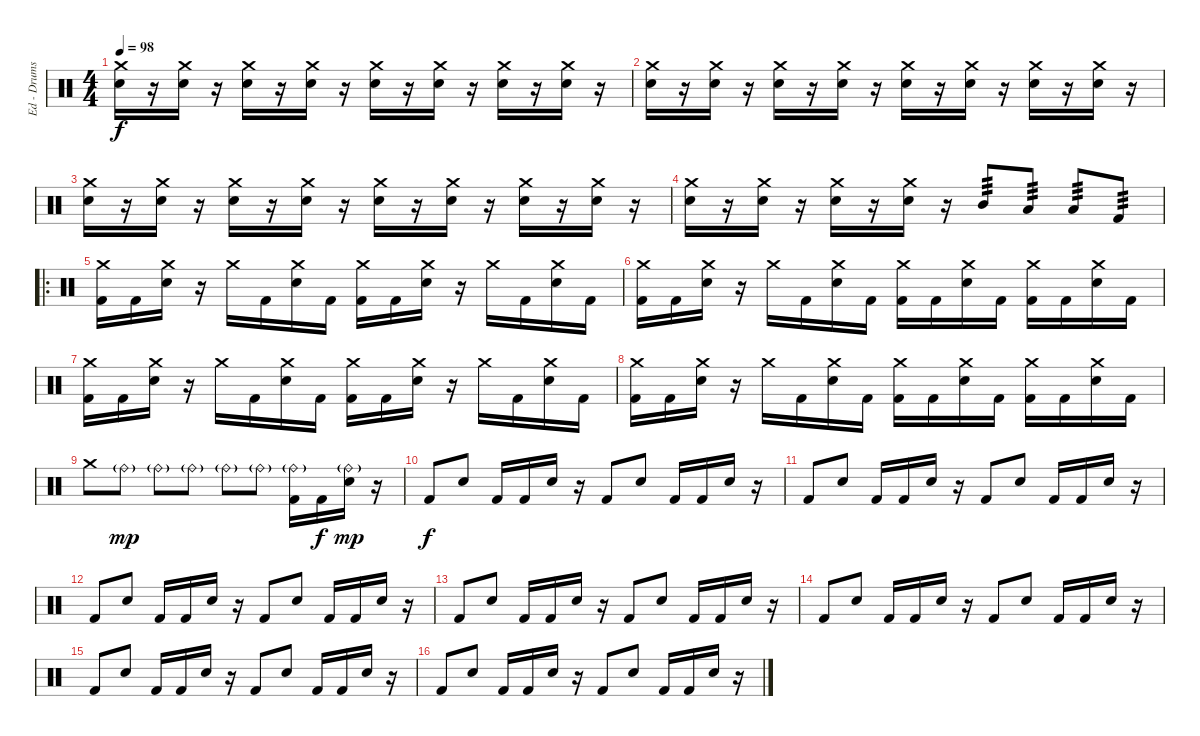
\track ("Ed - Drums" "Ed - Drums") {instrument percussion}
\staff {score}
\articulation defaults
\ts (4 4)
\tempo 98
\clef neutral
\ks c
("Crash medium (hit)" "Electric Snare (hit)").16{dy f} r.16 ("Crash medium (hit)" "Electric Snare (hit)").16 r.16 ("Crash medium (hit)" "Electric Snare (hit)").16 r.16 ("Crash medium (hit)" "Electric Snare (hit)").16 r.16 ("Crash medium (hit)" "Electric Snare (hit)").16 r.16 ("Crash medium (hit)" "Electric Snare (hit)").16 r.16 ("Crash medium (hit)" "Electric Snare (hit)").16 r.16 ("Crash medium (hit)" "Electric Snare (hit)").16 r.16 |
("Crash medium (hit)" "Electric Snare (hit)").16 r.16 ("Crash medium (hit)" "Electric Snare (hit)").16 r.16 ("Crash medium (hit)" "Electric Snare (hit)").16 r.16 ("Crash medium (hit)" "Electric Snare (hit)").16 r.16 ("Crash medium (hit)" "Electric Snare (hit)").16 r.16 ("Crash medium (hit)" "Electric Snare (hit)").16 r.16 ("Crash medium (hit)" "Electric Snare (hit)").16 r.16 ("Crash medium (hit)" "Electric Snare (hit)").16 r.16 |
("Crash medium (hit)" "Electric Snare (hit)").16 r.16 ("Crash medium (hit)" "Electric Snare (hit)").16 r.16 ("Crash medium (hit)" "Electric Snare (hit)").16 r.16 ("Crash medium (hit)" "Electric Snare (hit)").16 r.16 ("Crash medium (hit)" "Electric Snare (hit)").16 r.16 ("Crash medium (hit)" "Electric Snare (hit)").16 r.16 ("Crash medium (hit)" "Electric Snare (hit)").16 r.16 ("Crash medium (hit)" "Electric Snare (hit)").16 r.16 |
("Crash medium (hit)" "Electric Snare (hit)").16 r.16 ("Crash medium (hit)" "Electric Snare (hit)").16 r.16 ("Crash medium (hit)" "Electric Snare (hit)").16 r.16 ("Crash medium (hit)" "Electric Snare (hit)").16 r.16 "Mid Tom (hit)".8{tp 3} "Low Tom (hit)".8{tp 3} "Low Floor Tom (hit)".8{tp 3} "Kick (hit) 2".8{tp 3} |
\ro
("Crash medium (hit)" "Kick (hit) 2").16 "Kick (hit) 2".16 ("Crash medium (hit)" "Electric Snare (hit)").16 r.16 "Crash medium (hit)".16 "Kick (hit) 2".16 ("Crash medium (hit)" "Electric Snare (hit)").16 "Kick (hit) 2".16 ("Crash medium (hit)" "Kick (hit) 2").16 "Kick (hit) 2".16 ("Crash medium (hit)" "Electric Snare (hit)").16 r.16 "Crash medium (hit)".16 "Kick (hit) 2".16 ("Crash medium (hit)" "Electric Snare (hit)").16 "Kick (hit) 2".16 |
("Crash medium (hit)" "Kick (hit) 2").16 "Kick (hit) 2".16 ("Crash medium (hit)" "Electric Snare (hit)").16 r.16 "Crash medium (hit)".16 "Kick (hit) 2".16 ("Crash medium (hit)" "Electric Snare (hit)").16 "Kick (hit) 2".16 ("Crash medium (hit)" "Kick (hit) 2").16 "Kick (hit) 2".16 ("Crash medium (hit)" "Electric Snare (hit)").16 "Kick (hit) 2".16 ("Crash medium (hit)" "Kick (hit) 2").16 "Kick (hit) 2".16 ("Crash medium (hit)" "Electric Snare (hit)").16 "Kick (hit) 2".16 |
("Crash medium (hit)" "Kick (hit) 2").16 "Kick (hit) 2".16 ("Crash medium (hit)" "Electric Snare (hit)").16 r.16 "Crash medium (hit)".16 "Kick (hit) 2".16 ("Crash medium (hit)" "Electric Snare (hit)").16 "Kick (hit) 2".16 ("Crash medium (hit)" "Kick (hit) 2").16 "Kick (hit) 2".16 ("Crash medium (hit)" "Electric Snare (hit)").16 r.16 "Crash medium (hit)".16 "Kick (hit) 2".16 ("Crash medium (hit)" "Electric Snare (hit)").16 "Kick (hit) 2".16 |
("Crash medium (hit)" "Kick (hit) 2").16 "Kick (hit) 2".16 ("Crash medium (hit)" "Electric Snare (hit)").16 r.16 "Crash medium (hit)".16 "Kick (hit) 2".16 ("Crash medium (hit)" "Electric Snare (hit)").16 "Kick (hit) 2".16 ("Crash medium (hit)" "Kick (hit) 2").16 "Kick (hit) 2".16 ("Crash medium (hit)" "Electric Snare (hit)").16 "Kick (hit) 2".16 ("Crash medium (hit)" "Kick (hit) 2").16 "Kick (hit) 2".16 ("Crash medium (hit)" "Electric Snare (hit)").16 "Kick (hit) 2".16 |
"Crash medium (hit)".8 "Ride (bell)"{g}.8{dy mp} "Ride (bell)"{g}.8 "Ride (bell)"{g}.8 "Ride (bell)"{g}.8 "Ride (bell)"{g}.8 ("Ride (bell)"{g} "Kick (hit) 2").16 "Kick (hit) 2".16{dy f} ("Ride (bell)"{g} "Electric Snare (hit)").16{dy mp} r.16 |
"Kick (hit) 2".8{dy f} "Electric Snare (hit)".8 "Kick (hit) 2".16 "Kick (hit) 2".16 "Electric Snare (hit)".16 r.16 "Kick (hit) 2".8 "Electric Snare (hit)".8 "Kick (hit) 2".16 "Kick (hit) 2".16 "Electric Snare (hit)".16 r.16 |
"Kick (hit) 2".8 "Electric Snare (hit)".8 "Kick (hit) 2".16 "Kick (hit) 2".16 "Electric Snare (hit)".16 r.16 "Kick (hit) 2".8 "Electric Snare (hit)".8 "Kick (hit) 2".16 "Kick (hit) 2".16 "Electric Snare (hit)".16 r.16 |
"Kick (hit) 2".8 "Electric Snare (hit)".8 "Kick (hit) 2".16 "Kick (hit) 2".16 "Electric Snare (hit)".16 r.16 "Kick (hit) 2".8 "Electric Snare (hit)".8 "Kick (hit) 2".16 "Kick (hit) 2".16 "Electric Snare (hit)".16 r.16 |
"Kick (hit) 2".8 "Electric Snare (hit)".8 "Kick (hit) 2".16 "Kick (hit) 2".16 "Electric Snare (hit)".16 r.16 "Kick (hit) 2".8 "Electric Snare (hit)".8 "Kick (hit) 2".16 "Kick (hit) 2".16 "Electric Snare (hit)".16 r.16 |
"Kick (hit) 2".8 "Electric Snare (hit)".8 "Kick (hit) 2".16 "Kick (hit) 2".16 "Electric Snare (hit)".16 r.16 "Kick (hit) 2".8 "Electric Snare (hit)".8 "Kick (hit) 2".16 "Kick (hit) 2".16 "Electric Snare (hit)".16 r.16 |
"Kick (hit) 2".8 "Electric Snare (hit)".8 "Kick (hit) 2".16 "Kick (hit) 2".16 "Electric Snare (hit)".16 r.16 "Kick (hit) 2".8 "Electric Snare (hit)".8 "Kick (hit) 2".16 "Kick (hit) 2".16 "Electric Snare (hit)".16 r.16 |
"Kick (hit) 2".8 "Electric Snare (hit)".8 "Kick (hit) 2".16 "Kick (hit) 2".16 "Electric Snare (hit)".16 r.16 "Kick (hit) 2".8 "Electric Snare (hit)".8 "Kick (hit) 2".16 "Kick (hit) 2".16 "Electric Snare (hit)".16 r.16
